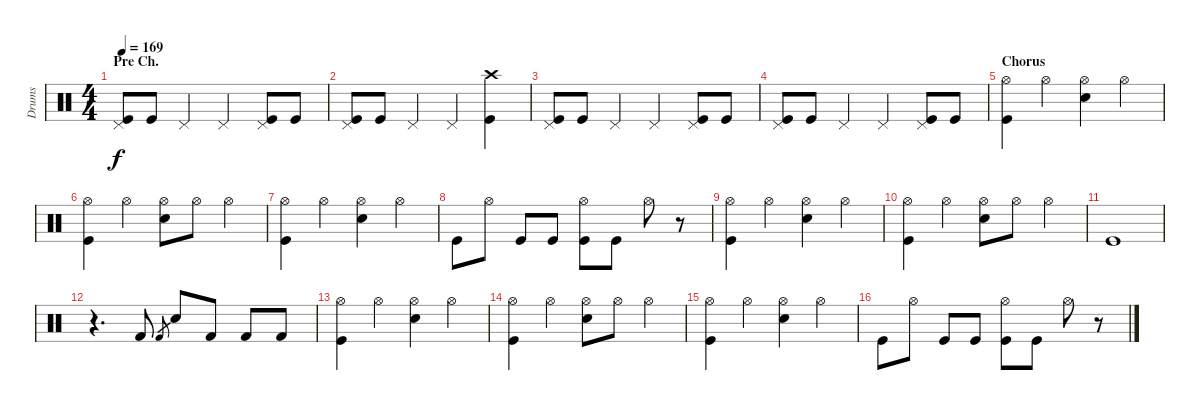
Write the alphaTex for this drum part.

\track ("Drums" "Drums") {instrument percussion}
\staff {score}
\articulation defaults
\ts (4 4)
\section ("" "Pre Ch.")
\tempo 169
\clef neutral
\ks c
("Pedal Hi-Hat (hit)" "Kick (hit)").8{dy f} "Kick (hit)".8 "Pedal Hi-Hat (hit)".4 "Pedal Hi-Hat (hit)".4 ("Pedal Hi-Hat (hit)" "Kick (hit)").8 "Kick (hit)".8 |
("Pedal Hi-Hat (hit)" "Kick (hit)").8 "Kick (hit)".8 "Pedal Hi-Hat (hit)".4 "Pedal Hi-Hat (hit)".4 ("Crash high (hit)" "Kick (hit)").4 |
("Pedal Hi-Hat (hit)" "Kick (hit)").8 "Kick (hit)".8 "Pedal Hi-Hat (hit)".4 "Pedal Hi-Hat (hit)".4 ("Pedal Hi-Hat (hit)" "Kick (hit)").8 "Kick (hit)".8 |
("Pedal Hi-Hat (hit)" "Kick (hit)").8 "Kick (hit)".8 "Pedal Hi-Hat (hit)".4 "Pedal Hi-Hat (hit)".4 ("Pedal Hi-Hat (hit)" "Kick (hit)").8 "Kick (hit)".8 |
\section ("" "Chorus")
("Hi-Hat (open)" "Kick (hit)").4 "Hi-Hat (open)".4 ("Hi-Hat (open)" "Snare (hit) 2").4 "Hi-Hat (open)".4 |
("Hi-Hat (open)" "Kick (hit)").4 "Hi-Hat (open)".4 ("Hi-Hat (open)" "Snare (hit) 2").8 "Hi-Hat (open)".8 "Hi-Hat (open)".4 |
("Hi-Hat (open)" "Kick (hit)").4 "Hi-Hat (open)".4 ("Hi-Hat (open)" "Snare (hit) 2").4 "Hi-Hat (open)".4 |
"Kick (hit)".8 "Hi-Hat (open)".8 "Kick (hit)".8 "Kick (hit)".8 ("Hi-Hat (open)" "Kick (hit)").8 "Kick (hit)".8 "Hi-Hat (open)".8 r.8 |
("Hi-Hat (open)" "Kick (hit)").4 "Hi-Hat (open)".4 ("Hi-Hat (open)" "Snare (hit) 2").4 "Hi-Hat (open)".4 |
("Hi-Hat (open)" "Kick (hit)").4 "Hi-Hat (open)".4 ("Hi-Hat (open)" "Snare (hit) 2").8 "Hi-Hat (open)".8 "Hi-Hat (open)".4 |
"Kick (hit)".1 |
r.4{d} "Kick (hit) 2".8 "Kick (hit) 2".8{gr} "Snare (hit) 2".8 "Kick (hit) 2".8 "Kick (hit) 2".8 "Kick (hit) 2".8 |
("Hi-Hat (open)" "Kick (hit)").4 "Hi-Hat (open)".4 ("Hi-Hat (open)" "Snare (hit) 2").4 "Hi-Hat (open)".4 |
("Hi-Hat (open)" "Kick (hit)").4 "Hi-Hat (open)".4 ("Hi-Hat (open)" "Snare (hit) 2").8 "Hi-Hat (open)".8 "Hi-Hat (open)".4 |
("Hi-Hat (open)" "Kick (hit)").4 "Hi-Hat (open)".4 ("Hi-Hat (open)" "Snare (hit) 2").4 "Hi-Hat (open)".4 |
"Kick (hit)".8 "Hi-Hat (open)".8 "Kick (hit)".8 "Kick (hit)".8 ("Hi-Hat (open)" "Kick (hit)").8 "Kick (hit)".8 "Hi-Hat (open)".8 r.8
